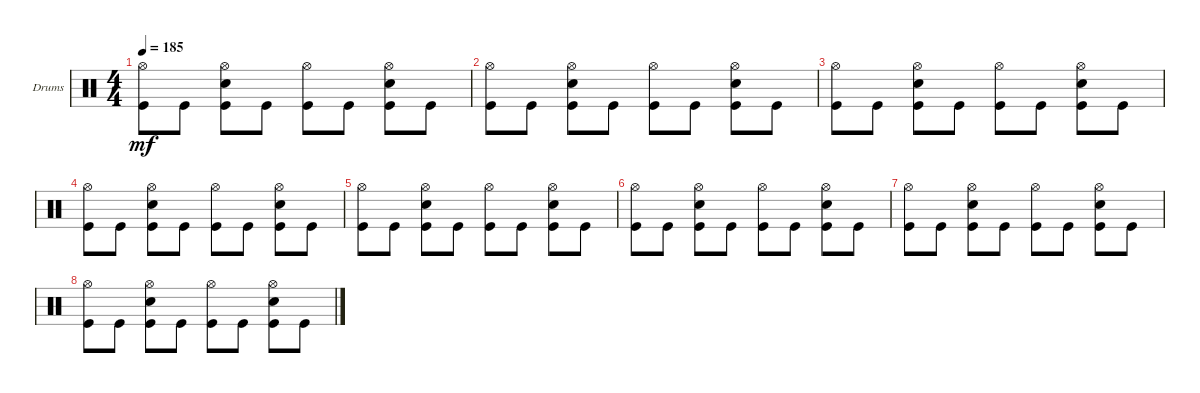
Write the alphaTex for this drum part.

\bracketExtendMode groupsimilarinstruments
\firstSystemTrackNameOrientation horizontal
\otherSystemsTrackNameOrientation horizontal
\track ("Drumkit" "Drums") {instrument percussion}
\staff {score}
\articulation defaults
\ts (4 4)
\tempo 185
\clef neutral
\scale
0.333333
\ks c
("Hi-Hat (open)" "Kick (hit)").8{dy mf} "Kick (hit)".8 ("Kick (hit)" "Snare (hit) 2" "Hi-Hat (open)").8 "Kick (hit)".8 ("Kick (hit)" "Hi-Hat (open)").8 "Kick (hit)".8 ("Kick (hit)" "Hi-Hat (open)" "Snare (hit) 2").8 "Kick (hit)".8 |
\scale
0.333333 ("Hi-Hat (open)" "Kick (hit)").8 "Kick (hit)".8 ("Kick (hit)" "Snare (hit) 2" "Hi-Hat (open)").8 "Kick (hit)".8 ("Kick (hit)" "Hi-Hat (open)").8 "Kick (hit)".8 ("Kick (hit)" "Hi-Hat (open)" "Snare (hit) 2").8 "Kick (hit)".8 |
\scale
0.333333 ("Hi-Hat (open)" "Kick (hit)").8 "Kick (hit)".8 ("Kick (hit)" "Snare (hit) 2" "Hi-Hat (open)").8 "Kick (hit)".8 ("Kick (hit)" "Hi-Hat (open)").8 "Kick (hit)".8 ("Kick (hit)" "Hi-Hat (open)" "Snare (hit) 2").8 "Kick (hit)".8 |
\scale
0.333333 ("Hi-Hat (open)" "Kick (hit)").8 "Kick (hit)".8 ("Kick (hit)" "Snare (hit) 2" "Hi-Hat (open)").8 "Kick (hit)".8 ("Kick (hit)" "Hi-Hat (open)").8 "Kick (hit)".8 ("Kick (hit)" "Hi-Hat (open)" "Snare (hit) 2").8 "Kick (hit)".8 |
\scale
0.333333 ("Hi-Hat (open)" "Kick (hit)").8 "Kick (hit)".8 ("Kick (hit)" "Snare (hit) 2" "Hi-Hat (open)").8 "Kick (hit)".8 ("Kick (hit)" "Hi-Hat (open)").8 "Kick (hit)".8 ("Kick (hit)" "Hi-Hat (open)" "Snare (hit) 2").8 "Kick (hit)".8 |
("Hi-Hat (open)" "Kick (hit)").8 "Kick (hit)".8 ("Kick (hit)" "Snare (hit) 2" "Hi-Hat (open)").8 "Kick (hit)".8 ("Kick (hit)" "Hi-Hat (open)").8 "Kick (hit)".8 ("Kick (hit)" "Hi-Hat (open)" "Snare (hit) 2").8 "Kick (hit)".8 |
("Hi-Hat (open)" "Kick (hit)").8 "Kick (hit)".8 ("Kick (hit)" "Snare (hit) 2" "Hi-Hat (open)").8 "Kick (hit)".8 ("Kick (hit)" "Hi-Hat (open)").8 "Kick (hit)".8 ("Kick (hit)" "Hi-Hat (open)" "Snare (hit) 2").8 "Kick (hit)".8 |
("Hi-Hat (open)" "Kick (hit)").8 "Kick (hit)".8 ("Kick (hit)" "Snare (hit) 2" "Hi-Hat (open)").8 "Kick (hit)".8 ("Kick (hit)" "Hi-Hat (open)").8 "Kick (hit)".8 ("Kick (hit)" "Hi-Hat (open)" "Snare (hit) 2").8 "Kick (hit)".8
